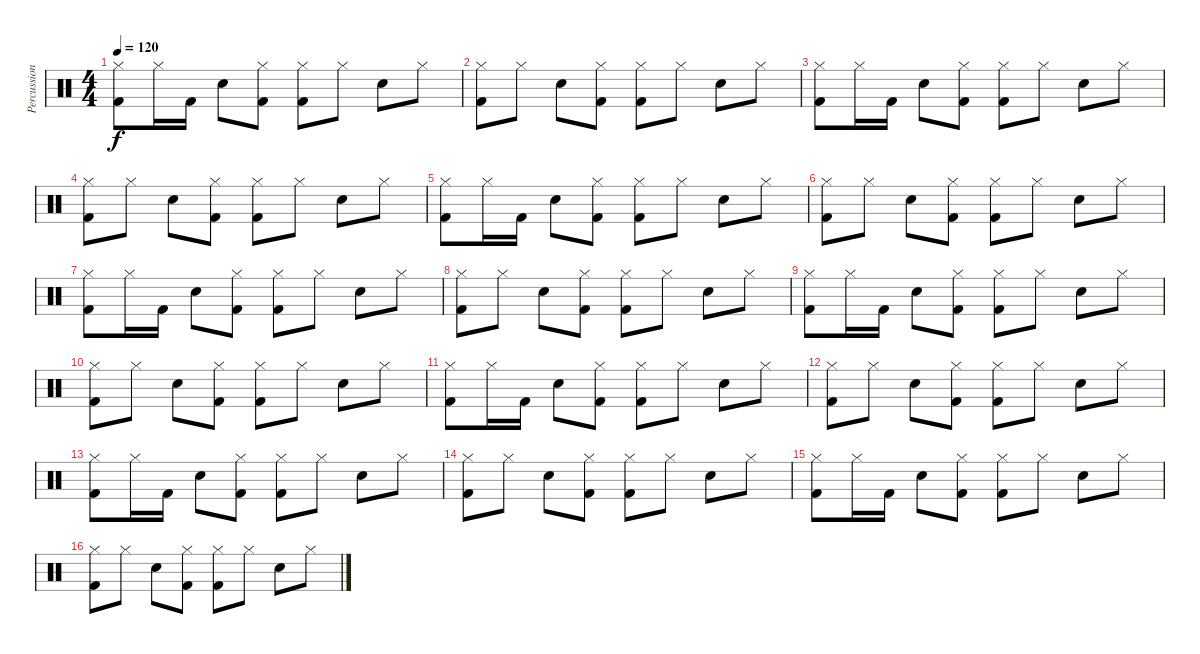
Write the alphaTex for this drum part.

\track ("Percussion (Bela)" "Percussion") {instrument percussion}
\staff {score}
\articulation defaults
\ts (4 4)
\tempo 120
\clef neutral
\ks c
("Hi-Hat (closed)" "Kick (hit) 2").8{dy f} "Hi-Hat (closed)".16 "Kick (hit) 2".16 "Electric Snare (hit)".8 ("Hi-Hat (closed)" "Kick (hit) 2").8 ("Hi-Hat (closed)" "Kick (hit) 2").8 "Hi-Hat (closed)".8 "Electric Snare (hit)".8 "Hi-Hat (closed)".8 |
("Hi-Hat (closed)" "Kick (hit) 2").8 "Hi-Hat (closed)".8 "Electric Snare (hit)".8 ("Hi-Hat (closed)" "Kick (hit) 2").8 ("Hi-Hat (closed)" "Kick (hit) 2").8 "Hi-Hat (closed)".8 "Electric Snare (hit)".8 "Hi-Hat (closed)".8 |
("Hi-Hat (closed)" "Kick (hit) 2").8 "Hi-Hat (closed)".16 "Kick (hit) 2".16 "Electric Snare (hit)".8 ("Hi-Hat (closed)" "Kick (hit) 2").8 ("Hi-Hat (closed)" "Kick (hit) 2").8 "Hi-Hat (closed)".8 "Electric Snare (hit)".8 "Hi-Hat (closed)".8 |
("Hi-Hat (closed)" "Kick (hit) 2").8 "Hi-Hat (closed)".8 "Electric Snare (hit)".8 ("Hi-Hat (closed)" "Kick (hit) 2").8 ("Hi-Hat (closed)" "Kick (hit) 2").8 "Hi-Hat (closed)".8 "Electric Snare (hit)".8 "Hi-Hat (closed)".8 |
("Hi-Hat (closed)" "Kick (hit) 2").8 "Hi-Hat (closed)".16 "Kick (hit) 2".16 "Electric Snare (hit)".8 ("Hi-Hat (closed)" "Kick (hit) 2").8 ("Hi-Hat (closed)" "Kick (hit) 2").8 "Hi-Hat (closed)".8 "Electric Snare (hit)".8 "Hi-Hat (closed)".8 |
("Hi-Hat (closed)" "Kick (hit) 2").8 "Hi-Hat (closed)".8 "Electric Snare (hit)".8 ("Hi-Hat (closed)" "Kick (hit) 2").8 ("Hi-Hat (closed)" "Kick (hit) 2").8 "Hi-Hat (closed)".8 "Electric Snare (hit)".8 "Hi-Hat (closed)".8 |
("Hi-Hat (closed)" "Kick (hit) 2").8 "Hi-Hat (closed)".16 "Kick (hit) 2".16 "Electric Snare (hit)".8 ("Hi-Hat (closed)" "Kick (hit) 2").8 ("Hi-Hat (closed)" "Kick (hit) 2").8 "Hi-Hat (closed)".8 "Electric Snare (hit)".8 "Hi-Hat (closed)".8 |
("Hi-Hat (closed)" "Kick (hit) 2").8 "Hi-Hat (closed)".8 "Electric Snare (hit)".8 ("Hi-Hat (closed)" "Kick (hit) 2").8 ("Hi-Hat (closed)" "Kick (hit) 2").8 "Hi-Hat (closed)".8 "Electric Snare (hit)".8 "Hi-Hat (closed)".8 |
("Hi-Hat (closed)" "Kick (hit) 2").8 "Hi-Hat (closed)".16 "Kick (hit) 2".16 "Electric Snare (hit)".8 ("Hi-Hat (closed)" "Kick (hit) 2").8 ("Hi-Hat (closed)" "Kick (hit) 2").8 "Hi-Hat (closed)".8 "Electric Snare (hit)".8 "Hi-Hat (closed)".8 |
("Hi-Hat (closed)" "Kick (hit) 2").8 "Hi-Hat (closed)".8 "Electric Snare (hit)".8 ("Hi-Hat (closed)" "Kick (hit) 2").8 ("Hi-Hat (closed)" "Kick (hit) 2").8 "Hi-Hat (closed)".8 "Electric Snare (hit)".8 "Hi-Hat (closed)".8 |
("Hi-Hat (closed)" "Kick (hit) 2").8 "Hi-Hat (closed)".16 "Kick (hit) 2".16 "Electric Snare (hit)".8 ("Hi-Hat (closed)" "Kick (hit) 2").8 ("Hi-Hat (closed)" "Kick (hit) 2").8 "Hi-Hat (closed)".8 "Electric Snare (hit)".8 "Hi-Hat (closed)".8 |
("Hi-Hat (closed)" "Kick (hit) 2").8 "Hi-Hat (closed)".8 "Electric Snare (hit)".8 ("Hi-Hat (closed)" "Kick (hit) 2").8 ("Hi-Hat (closed)" "Kick (hit) 2").8 "Hi-Hat (closed)".8 "Electric Snare (hit)".8 "Hi-Hat (closed)".8 |
("Hi-Hat (closed)" "Kick (hit) 2").8 "Hi-Hat (closed)".16 "Kick (hit) 2".16 "Electric Snare (hit)".8 ("Hi-Hat (closed)" "Kick (hit) 2").8 ("Hi-Hat (closed)" "Kick (hit) 2").8 "Hi-Hat (closed)".8 "Electric Snare (hit)".8 "Hi-Hat (closed)".8 |
("Hi-Hat (closed)" "Kick (hit) 2").8 "Hi-Hat (closed)".8 "Electric Snare (hit)".8 ("Hi-Hat (closed)" "Kick (hit) 2").8 ("Hi-Hat (closed)" "Kick (hit) 2").8 "Hi-Hat (closed)".8 "Electric Snare (hit)".8 "Hi-Hat (closed)".8 |
("Hi-Hat (closed)" "Kick (hit) 2").8 "Hi-Hat (closed)".16 "Kick (hit) 2".16 "Electric Snare (hit)".8 ("Hi-Hat (closed)" "Kick (hit) 2").8 ("Hi-Hat (closed)" "Kick (hit) 2").8 "Hi-Hat (closed)".8 "Electric Snare (hit)".8 "Hi-Hat (closed)".8 |
("Hi-Hat (closed)" "Kick (hit) 2").8 "Hi-Hat (closed)".8 "Electric Snare (hit)".8 ("Hi-Hat (closed)" "Kick (hit) 2").8 ("Hi-Hat (closed)" "Kick (hit) 2").8 "Hi-Hat (closed)".8 "Electric Snare (hit)".8 "Hi-Hat (closed)".8
